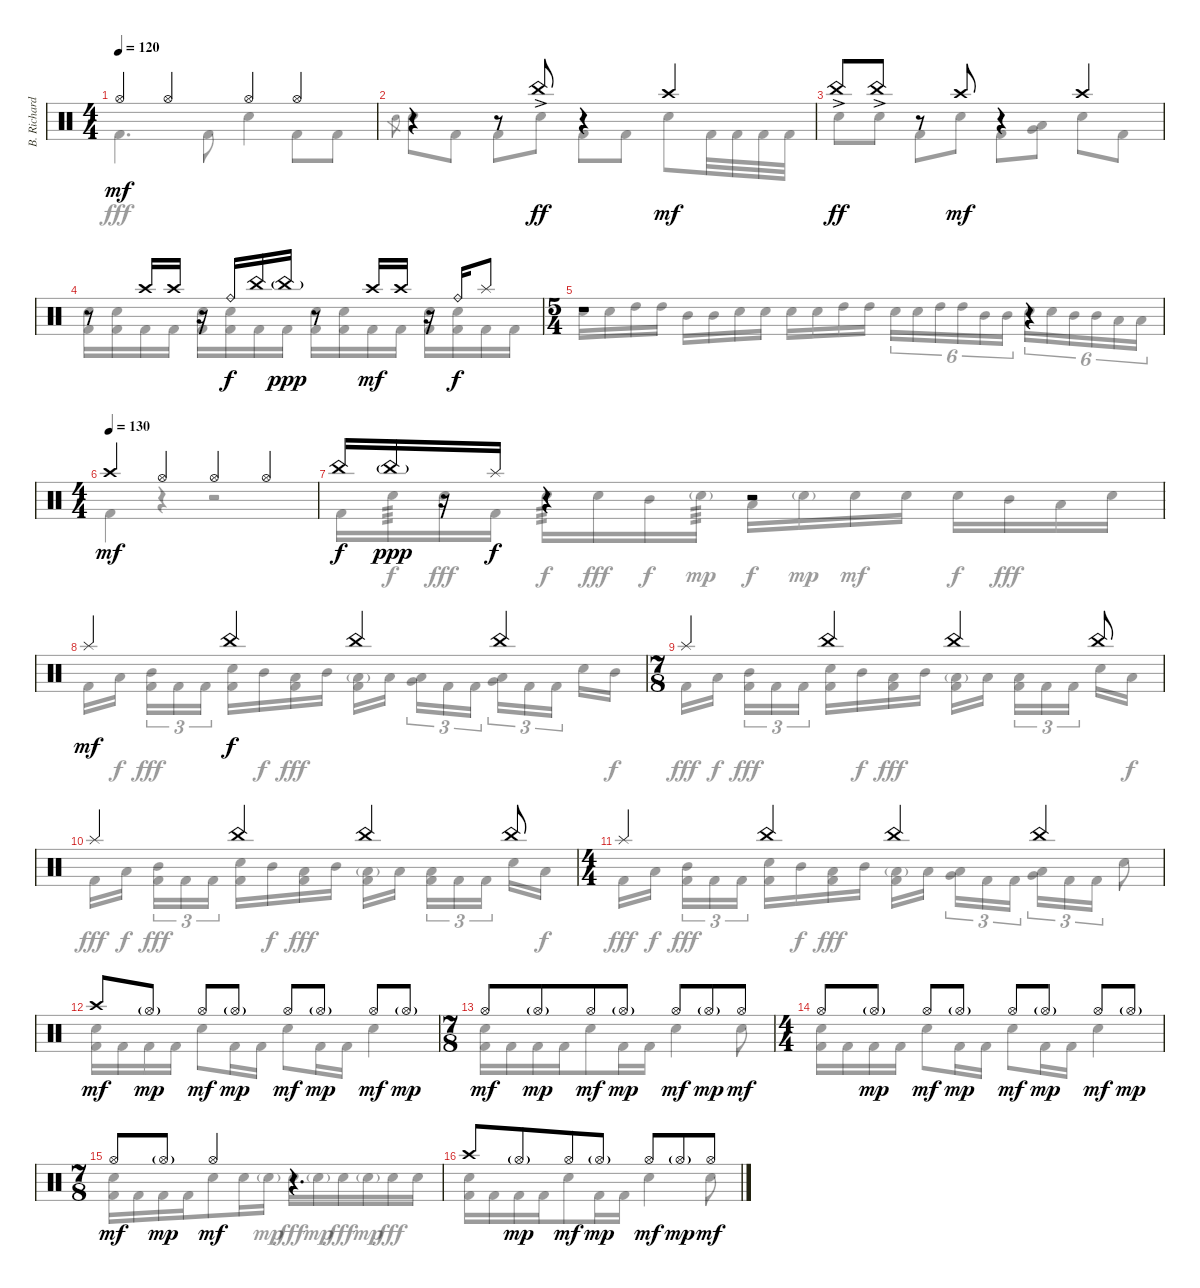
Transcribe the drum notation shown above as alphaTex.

\track ("B. Richardson Drums" "B. Richard") {instrument percussion}
\staff {score}
\articulation defaults
\voice
\ts (4 4)
\tempo 120
\clef neutral
\ks c "Hi-Hat (open)".4{dy mf} "Hi-Hat (open)".4 "Hi-Hat (open)".4 "Hi-Hat (open)".4
|
r.4 r.8 "China (hit)"{ac}.8{dy ff} r.4 "Crash high (hit)".4{dy mf} |
"China (hit)"{ac}.8{dy ff} "China (hit)"{ac}.8 r.8 "Crash high (hit)".8{dy mf} r.4 "Crash high (hit)".4 |
r.8 "Crash high (hit)".16 "Crash high (hit)".16 r.16 "Ride (bell)".16{dy f} "China (hit)".16 "China (hit)"{g}.16{dy ppp} r.8 "Crash high (hit)".16{dy mf} "Crash high (hit)".16 r.16 "Ride (bell)".16{dy f} "Splash (hit)".8 |
\ts (5 4)
r.1 r.4 |
\ts (4 4)
\tempo (130)
"Crash high (hit)".4{dy mf} "Hi-Hat (open)".4 "Hi-Hat (open)".4 "Hi-Hat (open)".4 |
"China (hit)".16{dy f} "China (hit)"{g}.16{dy ppp} r.16 "Splash (hit)".16{dy f} r.4 r.2 |
"Splash (hit)".4{dy mf} "China (hit)".4{dy f} "China (hit)".4 "China (hit)".4 |
\ts (7 8)
"Splash (hit)".4 "China (hit)".4 "China (hit)".4 "China (hit)".8 |
"Splash (hit)".4 "China (hit)".4 "China (hit)".4 "China (hit)".8 |
\ts (4 4)
"Splash (hit)".4 "China (hit)".4 "China (hit)".4 "China (hit)".4 |
"Crash high (hit)".8{dy mf} "Hi-Hat (open)"{g}.8{dy mp} "Hi-Hat (open)".8{dy mf} "Hi-Hat (open)"{g}.8{dy mp} "Hi-Hat (open)".8{dy mf} "Hi-Hat (open)"{g}.8{dy mp} "Hi-Hat (open)".8{dy mf} "Hi-Hat (open)"{g}.8{dy mp} |
\ts (7 8)
"Hi-Hat (open)".8{dy mf} "Hi-Hat (open)"{g}.8{dy mp} "Hi-Hat (open)".8{dy mf} "Hi-Hat (open)"{g}.8{dy mp} "Hi-Hat (open)".8{dy mf} "Hi-Hat (open)"{g}.8{dy mp} "Hi-Hat (open)".8{dy mf} |
\ts (4 4)
"Hi-Hat (open)".8 "Hi-Hat (open)"{g}.8{dy mp} "Hi-Hat (open)".8{dy mf} "Hi-Hat (open)"{g}.8{dy mp} "Hi-Hat (open)".8{dy mf} "Hi-Hat (open)"{g}.8{dy mp} "Hi-Hat (open)".8{dy mf} "Hi-Hat (open)"{g}.8{dy mp} |
\ts (7 8)
"Hi-Hat (open)".8{dy mf} "Hi-Hat (open)"{g}.8{dy mp} "Hi-Hat (open)".4{dy mf} r.4{d} |
"Crash high (hit)".8 "Hi-Hat (open)"{g}.8{dy mp} "Hi-Hat (open)".8{dy mf} "Hi-Hat (open)"{g}.8{dy mp} "Hi-Hat (open)".8{dy mf} "Hi-Hat (open)"{g}.8{dy mp} "Hi-Hat (open)".8{dy mf}
\voice
\clef neutral
\ottava regular
\simile none
\ks c "Kick (hit) 2".4{d dy fff} "Kick (hit) 2".8 "Electric Snare (hit)".4 "Kick (hit) 2".8 "Kick (hit) 2".8
|
"Electric Snare (hit)".8{gr} "Electric Snare (hit)".8 "Kick (hit) 2".8 "Kick (hit) 2".8 "Electric Snare (hit)".8 "Kick (hit) 2".8 "Kick (hit) 2".8 "Electric Snare (hit)".8 "Kick (hit) 2".32 "Kick (hit) 2".32 "Kick (hit) 2".32 "Kick (hit) 2".32 |
"Electric Snare (hit)".8 "Electric Snare (hit)".8 "Kick (hit) 2".8 "Electric Snare (hit)".8 "Kick (hit) 2".8 ("Low Tom (hit)" "Very Low Tom (hit)").8 "Electric Snare (hit)".8 "Kick (hit) 2".8 |
("Electric Snare (hit)" "Kick (hit) 2").16 ("Electric Snare (hit)" "Kick (hit) 2").16 "Kick (hit) 2".16 "Kick (hit) 2".16 ("Electric Snare (hit)" "Kick (hit) 2").16 ("Electric Snare (hit)" "Kick (hit) 2").16 "Kick (hit) 2".16 "Kick (hit) 2".16 ("Electric Snare (hit)" "Kick (hit) 2").16 ("Electric Snare (hit)" "Kick (hit) 2").16 "Kick (hit) 2".16 "Kick (hit) 2".16 ("Electric Snare (hit)" "Kick (hit) 2").16 ("Electric Snare (hit)" "Kick (hit) 2").16 "Kick (hit) 2".16 "Kick (hit) 2".16 |
"Electric Snare (hit)".16 "Electric Snare (hit)".16 "High Tom (hit)".16 "High Tom (hit)".16 "Mid Tom (hit)".16 "Mid Tom (hit)".16 "Electric Snare (hit)".16 "Electric Snare (hit)".16 "Electric Snare (hit)".16 "Electric Snare (hit)".16 "High Tom (hit)".16 "High Tom (hit)".16 "Electric Snare (hit)".16{tu (6 4)} "Electric Snare (hit)".16{tu (6 4)} "High Tom (hit)".16{tu (6 4)} "High Tom (hit)".16{tu (6 4)} "Mid Tom (hit)".16{tu (6 4)} "Mid Tom (hit)".16{tu (6 4)} "Electric Snare (hit)".16{tu (6 4)} "Electric Snare (hit)".16{tu (6 4)} "Mid Tom (hit)".16{tu (6 4)} "Mid Tom (hit)".16{tu (6 4)} "Low Tom (hit)".16{tu (6 4)} "Low Tom (hit)".16{tu (6 4)} |
"Kick (hit) 2".4 r.4 r.2 |
"Kick (hit) 2".16 "Electric Snare (hit)".16{tp 3 dy f} "Electric Snare (hit)".16{dy fff} "Kick (hit) 2".16 "Electric Snare (hit)".16{tp 3 dy f} "Electric Snare (hit)".16{dy fff} "Mid Tom (hit)".16{dy f} "Electric Snare (hit)"{g}.16{tp 3 dy mp} "Low Tom (hit)".16{dy f} "Electric Snare (hit)"{g}.16{dy mp} "Electric Snare (hit)".16{dy mf} "Electric Snare (hit)".16 "Electric Snare (hit)".16{dy f} "Mid Tom (hit)".16{dy fff} "Low Tom (hit)".16 "Electric Snare (hit)".16 |
"Kick (hit) 2".16 "Low Tom (hit)".16{dy f beam splitsecondary} ("Mid Tom (hit)" "Kick (hit) 2").16{tu (3 2) dy fff} "Kick (hit) 2".16{tu (3 2)} "Kick (hit) 2".16{tu (3 2)} ("Electric Snare (hit)" "Kick (hit) 2").16 "Mid Tom (hit)".16{dy f} ("Low Tom (hit)" "Kick (hit) 2").16{dy fff} "Mid Tom (hit)".16 ("Low Tom (hit)"{g} "Kick (hit) 2").16 "Low Tom (hit)".16{beam splitsecondary} ("Low Tom (hit)" "Very Low Tom (hit)").16{tu (3 2)} "Kick (hit) 2".16{tu (3 2)} "Kick (hit) 2".16{tu (3 2)} ("Low Tom (hit)" "Very Low Tom (hit)").16{tu (3 2)} "Kick (hit) 2".16{tu (3 2)} "Kick (hit) 2".16{tu (3 2) beam splitsecondary} "Electric Snare (hit)".16 "Mid Tom (hit)".16{dy f} |
"Kick (hit) 2".16{dy fff} "Low Tom (hit)".16{dy f} ("Mid Tom (hit)" "Kick (hit) 2").16{tu (3 2) dy fff} "Kick (hit) 2".16{tu (3 2)} "Kick (hit) 2".16{tu (3 2)} ("Electric Snare (hit)" "Kick (hit) 2").16 "Mid Tom (hit)".16{dy f} ("Low Tom (hit)" "Kick (hit) 2").16{dy fff} "Mid Tom (hit)".16 ("Low Tom (hit)"{g} "Kick (hit) 2").16 "Low Tom (hit)".16 ("Low Tom (hit)" "Kick (hit) 2").16{tu (3 2)} "Kick (hit) 2".16{tu (3 2)} "Kick (hit) 2".16{tu (3 2)} "Electric Snare (hit)".16 "Low Tom (hit)".16{dy f} |
"Kick (hit) 2".16{dy fff} "Low Tom (hit)".16{dy f} ("Mid Tom (hit)" "Kick (hit) 2").16{tu (3 2) dy fff} "Kick (hit) 2".16{tu (3 2)} "Kick (hit) 2".16{tu (3 2)} ("Electric Snare (hit)" "Kick (hit) 2").16 "Mid Tom (hit)".16{dy f} ("Low Tom (hit)" "Kick (hit) 2").16{dy fff} "Mid Tom (hit)".16 ("Low Tom (hit)"{g} "Kick (hit) 2").16 "Low Tom (hit)".16 ("Low Tom (hit)" "Kick (hit) 2").16{tu (3 2)} "Kick (hit) 2".16{tu (3 2)} "Kick (hit) 2".16{tu (3 2)} "Electric Snare (hit)".16 "Low Tom (hit)".16{dy f} |
"Kick (hit) 2".16{dy fff} "Low Tom (hit)".16{dy f beam splitsecondary} ("Mid Tom (hit)" "Kick (hit) 2").16{tu (3 2) dy fff} "Kick (hit) 2".16{tu (3 2)} "Kick (hit) 2".16{tu (3 2)} ("Electric Snare (hit)" "Kick (hit) 2").16 "Mid Tom (hit)".16{dy f} ("Low Tom (hit)" "Kick (hit) 2").16{dy fff} "Mid Tom (hit)".16 ("Low Tom (hit)"{g} "Kick (hit) 2").16 "Low Tom (hit)".16{beam splitsecondary} ("Low Tom (hit)" "Very Low Tom (hit)").16{tu (3 2)} "Kick (hit) 2".16{tu (3 2)} "Kick (hit) 2".16{tu (3 2)} ("Low Tom (hit)" "Very Low Tom (hit)").16{tu (3 2)} "Kick (hit) 2".16{tu (3 2)} "Kick (hit) 2".16{tu (3 2)} "Electric Snare (hit)".8 |
("Electric Snare (hit)" "Kick (hit) 2").16 "Kick (hit) 2".16 "Kick (hit) 2".16 "Kick (hit) 2".16 "Electric Snare (hit)".8 "Kick (hit) 2".16 "Kick (hit) 2".16 "Electric Snare (hit)".8 "Kick (hit) 2".16 "Kick (hit) 2".16 "Electric Snare (hit)".4 |
("Electric Snare (hit)" "Kick (hit) 2").16 "Kick (hit) 2".16 "Kick (hit) 2".16 "Kick (hit) 2".16 "Electric Snare (hit)".8 "Kick (hit) 2".16 "Kick (hit) 2".16 "Electric Snare (hit)".4 "Electric Snare (hit)".8 |
("Electric Snare (hit)" "Kick (hit) 2").16 "Kick (hit) 2".16 "Kick (hit) 2".16 "Kick (hit) 2".16 "Electric Snare (hit)".8 "Kick (hit) 2".16 "Kick (hit) 2".16 "Electric Snare (hit)".8 "Kick (hit) 2".16 "Kick (hit) 2".16 "Electric Snare (hit)".4 |
("Electric Snare (hit)" "Kick (hit) 2").16 "Kick (hit) 2".16 "Kick (hit) 2".16 "Kick (hit) 2".16 "Electric Snare (hit)".8 "Electric Snare (hit)".16 "Electric Snare (hit)"{g}.16{dy mp} "Electric Snare (hit)".16{dy fff} "Electric Snare (hit)"{g}.16{dy mp} "Electric Snare (hit)".16{dy fff} "Electric Snare (hit)"{g}.16{dy mp} "Electric Snare (hit)".16{dy fff} "Electric Snare (hit)".16 |
("Electric Snare (hit)" "Kick (hit) 2").16 "Kick (hit) 2".16 "Kick (hit) 2".16 "Kick (hit) 2".16 "Electric Snare (hit)".8 "Kick (hit) 2".16 "Kick (hit) 2".16 "Electric Snare (hit)".4 "Electric Snare (hit)".8
